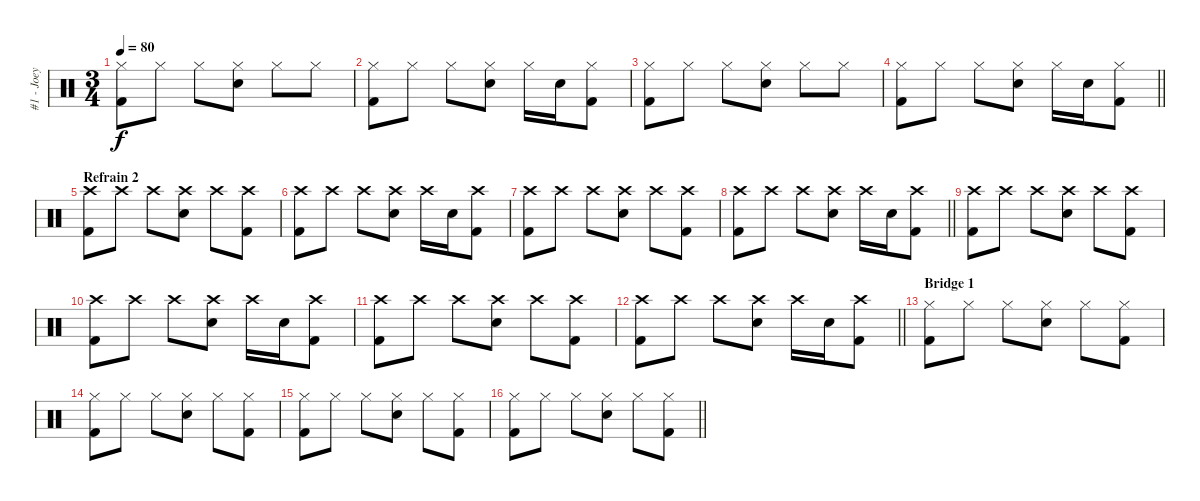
\track ("#1 - Joey Jordison" "#1 - Joey ") {instrument percussion}
\staff {score}
\articulation defaults
\ts (3 4)
\tempo 80
\clef neutral
\ks c
("Hi-Hat (closed)" "Kick (hit) 2").8{dy f} "Hi-Hat (closed)".8 "Hi-Hat (closed)".8 ("Hi-Hat (closed)" "Snare (hit) 2").8 "Hi-Hat (closed)".8 "Hi-Hat (closed)".8 |
("Hi-Hat (closed)" "Kick (hit) 2").8 "Hi-Hat (closed)".8 "Hi-Hat (closed)".8 ("Hi-Hat (closed)" "Snare (hit) 2").8 "Hi-Hat (closed)".16 "Snare (hit) 2".16 ("Hi-Hat (closed)" "Kick (hit) 2").8 |
("Hi-Hat (closed)" "Kick (hit) 2").8 "Hi-Hat (closed)".8 "Hi-Hat (closed)".8 ("Hi-Hat (closed)" "Snare (hit) 2").8 "Hi-Hat (closed)".8 "Hi-Hat (closed)".8 |
\barLineRight lightlight
("Hi-Hat (closed)" "Kick (hit) 2").8 "Hi-Hat (closed)".8 "Hi-Hat (closed)".8 ("Hi-Hat (closed)" "Snare (hit) 2").8 "Hi-Hat (closed)".16 "Snare (hit) 2".16 ("Hi-Hat (closed)" "Kick (hit) 2").8 |
\section ("" "Refrain 2")
("Crash high (hit)" "Kick (hit) 2").8 "Crash high (hit)".8 "Crash high (hit)".8 ("Crash high (hit)" "Snare (hit) 2").8 "Crash high (hit)".8 ("Crash high (hit)" "Kick (hit) 2").8 |
("Crash high (hit)" "Kick (hit) 2").8 "Crash high (hit)".8 "Crash high (hit)".8 ("Crash high (hit)" "Snare (hit) 2").8 "Crash high (hit)".16 "Snare (hit) 2".16 ("Crash high (hit)" "Kick (hit) 2").8 |
("Crash high (hit)" "Kick (hit) 2").8 "Crash high (hit)".8 "Crash high (hit)".8 ("Crash high (hit)" "Snare (hit) 2").8 "Crash high (hit)".8 ("Crash high (hit)" "Kick (hit) 2").8 |
\barLineRight lightlight
("Crash high (hit)" "Kick (hit) 2").8 "Crash high (hit)".8 "Crash high (hit)".8 ("Crash high (hit)" "Snare (hit) 2").8 "Crash high (hit)".16 "Snare (hit) 2".16 ("Crash high (hit)" "Kick (hit) 2").8 |
("Crash high (hit)" "Kick (hit) 2").8 "Crash high (hit)".8 "Crash high (hit)".8 ("Crash high (hit)" "Snare (hit) 2").8 "Crash high (hit)".8 ("Crash high (hit)" "Kick (hit) 2").8 |
("Crash high (hit)" "Kick (hit) 2").8 "Crash high (hit)".8 "Crash high (hit)".8 ("Crash high (hit)" "Snare (hit) 2").8 "Crash high (hit)".16 "Snare (hit) 2".16 ("Crash high (hit)" "Kick (hit) 2").8 |
("Crash high (hit)" "Kick (hit) 2").8 "Crash high (hit)".8 "Crash high (hit)".8 ("Crash high (hit)" "Snare (hit) 2").8 "Crash high (hit)".8 ("Crash high (hit)" "Kick (hit) 2").8 |
\barLineRight lightlight
("Crash high (hit)" "Kick (hit) 2").8 "Crash high (hit)".8 "Crash high (hit)".8 ("Crash high (hit)" "Snare (hit) 2").8 "Crash high (hit)".16 "Snare (hit) 2".16 ("Crash high (hit)" "Kick (hit) 2").8 |
\section ("" "Bridge 1")
("Hi-Hat (closed)" "Kick (hit) 2").8 "Hi-Hat (closed)".8 "Hi-Hat (closed)".8 ("Hi-Hat (closed)" "Snare (hit) 2").8 "Hi-Hat (closed)".8 ("Hi-Hat (closed)" "Kick (hit) 2").8 |
("Hi-Hat (closed)" "Kick (hit) 2").8 "Hi-Hat (closed)".8 "Hi-Hat (closed)".8 ("Hi-Hat (closed)" "Snare (hit) 2").8 "Hi-Hat (closed)".8 ("Hi-Hat (closed)" "Kick (hit) 2").8 |
("Hi-Hat (closed)" "Kick (hit) 2").8 "Hi-Hat (closed)".8 "Hi-Hat (closed)".8 ("Hi-Hat (closed)" "Snare (hit) 2").8 "Hi-Hat (closed)".8 ("Hi-Hat (closed)" "Kick (hit) 2").8 |
\barLineRight lightlight
("Hi-Hat (closed)" "Kick (hit) 2").8 "Hi-Hat (closed)".8 "Hi-Hat (closed)".8 ("Hi-Hat (closed)" "Snare (hit) 2").8 "Hi-Hat (closed)".8 ("Hi-Hat (closed)" "Kick (hit) 2").8
